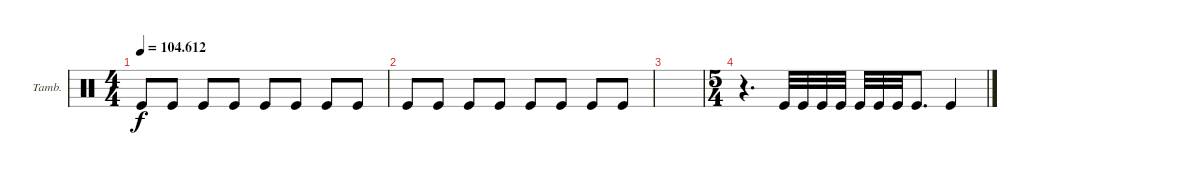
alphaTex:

\defaultSystemsLayout 4
\bracketExtendMode groupsimilarinstruments
\firstSystemTrackNameOrientation horizontal
\otherSystemsTrackNameOrientation horizontal
\track ("Tambourine" "Tamb.") {instrument percussion}
\staff {score}
\articulation defaults
\ts (4 4)
\tempo
104.612
\accidentals auto
\clef neutral
\ottava regular
\simile none
\scale
0.333333
\ks c "Kick (hit)".8{dy f} "Kick (hit)".8 "Kick (hit)".8 "Kick (hit)".8 "Kick (hit)".8 "Kick (hit)".8 "Kick (hit)".8 "Kick (hit)".8
|
"Kick (hit)".8 "Kick (hit)".8 "Kick (hit)".8 "Kick (hit)".8 "Kick (hit)".8 "Kick (hit)".8 "Kick (hit)".8 "Kick (hit)".8 |
|
\ts (5 4)
r.4{d} "Kick (hit)".32 "Kick (hit)".32 "Kick (hit)".32 "Kick (hit)".32 "Kick (hit)".32 "Kick (hit)".32 "Kick (hit)".32 "Kick (hit)".8{d} "Kick (hit)".4
